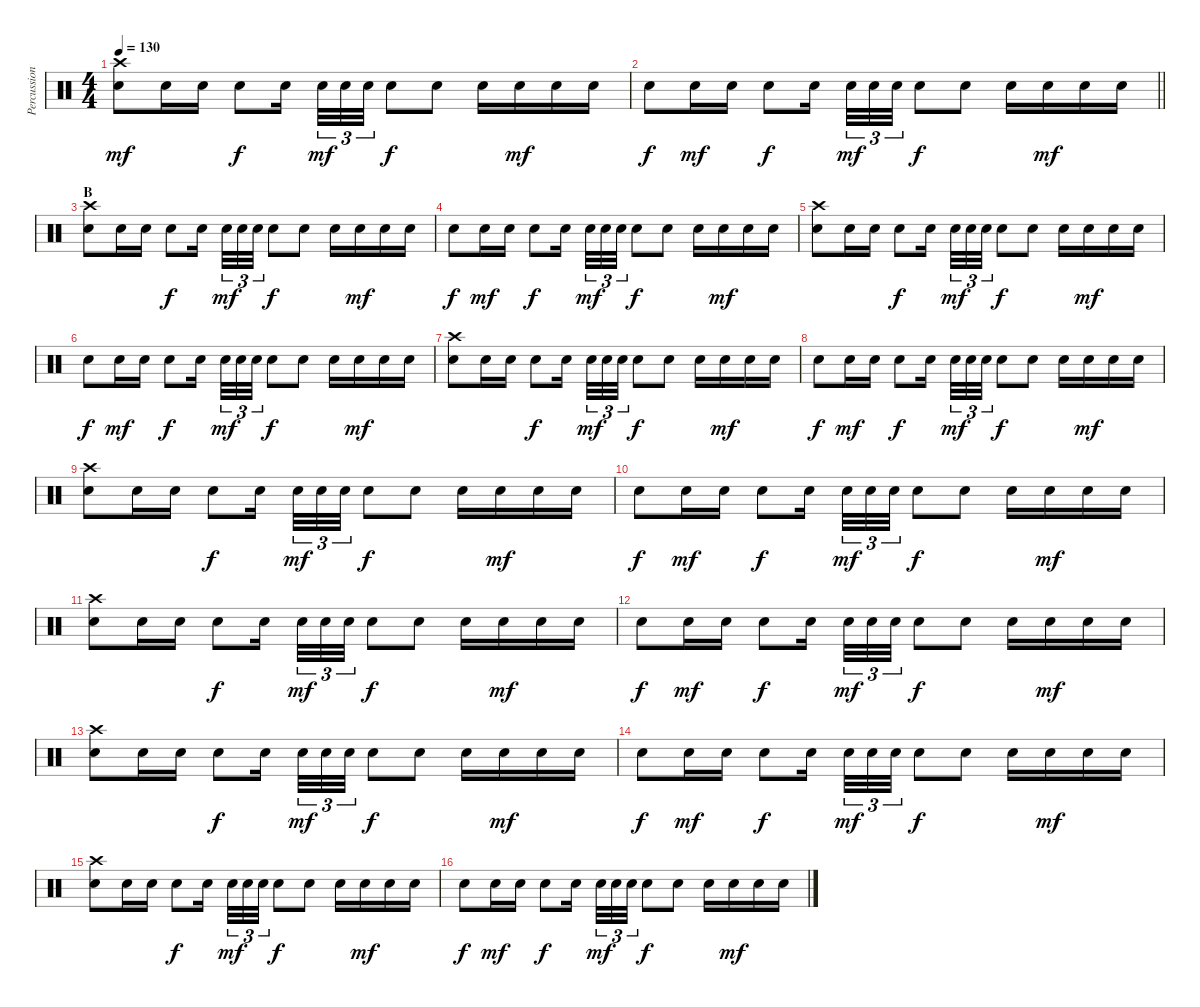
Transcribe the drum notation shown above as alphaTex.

\track ("Percussion" "Percussion") {instrument percussion}
\staff {score}
\articulation defaults
\ts (4 4)
\tempo 130
\clef neutral
\ks c
("Crash high (hit)" "Electric Snare (hit)").8{dy mf} "Electric Snare (hit)".16 "Electric Snare (hit)".16 "Electric Snare (hit)".8{dy f} "Electric Snare (hit)".16{beam splitsecondary} "Electric Snare (hit)".32{tu (3 2) dy mf} "Electric Snare (hit)".32{tu (3 2)} "Electric Snare (hit)".32{tu (3 2)} "Electric Snare (hit)".8{dy f} "Electric Snare (hit)".8 "Electric Snare (hit)".16 "Electric Snare (hit)".16{dy mf} "Electric Snare (hit)".16 "Electric Snare (hit)".16 |
\barLineRight lightlight "Electric Snare (hit)".8{dy f} "Electric Snare (hit)".16{dy mf} "Electric Snare (hit)".16 "Electric Snare (hit)".8{dy f} "Electric Snare (hit)".16{beam splitsecondary} "Electric Snare (hit)".32{tu (3 2) dy mf} "Electric Snare (hit)".32{tu (3 2)} "Electric Snare (hit)".32{tu (3 2)} "Electric Snare (hit)".8{dy f} "Electric Snare (hit)".8 "Electric Snare (hit)".16 "Electric Snare (hit)".16{dy mf} "Electric Snare (hit)".16 "Electric Snare (hit)".16
|
\section ("" "B")
("Crash high (hit)" "Electric Snare (hit)").8 "Electric Snare (hit)".16 "Electric Snare (hit)".16 "Electric Snare (hit)".8{dy f} "Electric Snare (hit)".16{beam splitsecondary} "Electric Snare (hit)".32{tu (3 2) dy mf} "Electric Snare (hit)".32{tu (3 2)} "Electric Snare (hit)".32{tu (3 2)} "Electric Snare (hit)".8{dy f} "Electric Snare (hit)".8 "Electric Snare (hit)".16 "Electric Snare (hit)".16{dy mf} "Electric Snare (hit)".16 "Electric Snare (hit)".16 |
"Electric Snare (hit)".8{dy f} "Electric Snare (hit)".16{dy mf} "Electric Snare (hit)".16 "Electric Snare (hit)".8{dy f} "Electric Snare (hit)".16{beam splitsecondary} "Electric Snare (hit)".32{tu (3 2) dy mf} "Electric Snare (hit)".32{tu (3 2)} "Electric Snare (hit)".32{tu (3 2)} "Electric Snare (hit)".8{dy f} "Electric Snare (hit)".8 "Electric Snare (hit)".16 "Electric Snare (hit)".16{dy mf} "Electric Snare (hit)".16 "Electric Snare (hit)".16 |
("Crash high (hit)" "Electric Snare (hit)").8 "Electric Snare (hit)".16 "Electric Snare (hit)".16 "Electric Snare (hit)".8{dy f} "Electric Snare (hit)".16{beam splitsecondary} "Electric Snare (hit)".32{tu (3 2) dy mf} "Electric Snare (hit)".32{tu (3 2)} "Electric Snare (hit)".32{tu (3 2)} "Electric Snare (hit)".8{dy f} "Electric Snare (hit)".8 "Electric Snare (hit)".16 "Electric Snare (hit)".16{dy mf} "Electric Snare (hit)".16 "Electric Snare (hit)".16 |
"Electric Snare (hit)".8{dy f} "Electric Snare (hit)".16{dy mf} "Electric Snare (hit)".16 "Electric Snare (hit)".8{dy f} "Electric Snare (hit)".16{beam splitsecondary} "Electric Snare (hit)".32{tu (3 2) dy mf} "Electric Snare (hit)".32{tu (3 2)} "Electric Snare (hit)".32{tu (3 2)} "Electric Snare (hit)".8{dy f} "Electric Snare (hit)".8 "Electric Snare (hit)".16 "Electric Snare (hit)".16{dy mf} "Electric Snare (hit)".16 "Electric Snare (hit)".16 |
("Crash high (hit)" "Electric Snare (hit)").8 "Electric Snare (hit)".16 "Electric Snare (hit)".16 "Electric Snare (hit)".8{dy f} "Electric Snare (hit)".16{beam splitsecondary} "Electric Snare (hit)".32{tu (3 2) dy mf} "Electric Snare (hit)".32{tu (3 2)} "Electric Snare (hit)".32{tu (3 2)} "Electric Snare (hit)".8{dy f} "Electric Snare (hit)".8 "Electric Snare (hit)".16 "Electric Snare (hit)".16{dy mf} "Electric Snare (hit)".16 "Electric Snare (hit)".16 |
"Electric Snare (hit)".8{dy f} "Electric Snare (hit)".16{dy mf} "Electric Snare (hit)".16 "Electric Snare (hit)".8{dy f} "Electric Snare (hit)".16{beam splitsecondary} "Electric Snare (hit)".32{tu (3 2) dy mf} "Electric Snare (hit)".32{tu (3 2)} "Electric Snare (hit)".32{tu (3 2)} "Electric Snare (hit)".8{dy f} "Electric Snare (hit)".8 "Electric Snare (hit)".16 "Electric Snare (hit)".16{dy mf} "Electric Snare (hit)".16 "Electric Snare (hit)".16 |
("Crash high (hit)" "Electric Snare (hit)").8 "Electric Snare (hit)".16 "Electric Snare (hit)".16 "Electric Snare (hit)".8{dy f} "Electric Snare (hit)".16{beam splitsecondary} "Electric Snare (hit)".32{tu (3 2) dy mf} "Electric Snare (hit)".32{tu (3 2)} "Electric Snare (hit)".32{tu (3 2)} "Electric Snare (hit)".8{dy f} "Electric Snare (hit)".8 "Electric Snare (hit)".16 "Electric Snare (hit)".16{dy mf} "Electric Snare (hit)".16 "Electric Snare (hit)".16 |
"Electric Snare (hit)".8{dy f} "Electric Snare (hit)".16{dy mf} "Electric Snare (hit)".16 "Electric Snare (hit)".8{dy f} "Electric Snare (hit)".16{beam splitsecondary} "Electric Snare (hit)".32{tu (3 2) dy mf} "Electric Snare (hit)".32{tu (3 2)} "Electric Snare (hit)".32{tu (3 2)} "Electric Snare (hit)".8{dy f} "Electric Snare (hit)".8 "Electric Snare (hit)".16 "Electric Snare (hit)".16{dy mf} "Electric Snare (hit)".16 "Electric Snare (hit)".16 |
("Crash high (hit)" "Electric Snare (hit)").8 "Electric Snare (hit)".16 "Electric Snare (hit)".16 "Electric Snare (hit)".8{dy f} "Electric Snare (hit)".16{beam splitsecondary} "Electric Snare (hit)".32{tu (3 2) dy mf} "Electric Snare (hit)".32{tu (3 2)} "Electric Snare (hit)".32{tu (3 2)} "Electric Snare (hit)".8{dy f} "Electric Snare (hit)".8 "Electric Snare (hit)".16 "Electric Snare (hit)".16{dy mf} "Electric Snare (hit)".16 "Electric Snare (hit)".16 |
"Electric Snare (hit)".8{dy f} "Electric Snare (hit)".16{dy mf} "Electric Snare (hit)".16 "Electric Snare (hit)".8{dy f} "Electric Snare (hit)".16{beam splitsecondary} "Electric Snare (hit)".32{tu (3 2) dy mf} "Electric Snare (hit)".32{tu (3 2)} "Electric Snare (hit)".32{tu (3 2)} "Electric Snare (hit)".8{dy f} "Electric Snare (hit)".8 "Electric Snare (hit)".16 "Electric Snare (hit)".16{dy mf} "Electric Snare (hit)".16 "Electric Snare (hit)".16 |
("Crash high (hit)" "Electric Snare (hit)").8 "Electric Snare (hit)".16 "Electric Snare (hit)".16 "Electric Snare (hit)".8{dy f} "Electric Snare (hit)".16{beam splitsecondary} "Electric Snare (hit)".32{tu (3 2) dy mf} "Electric Snare (hit)".32{tu (3 2)} "Electric Snare (hit)".32{tu (3 2)} "Electric Snare (hit)".8{dy f} "Electric Snare (hit)".8 "Electric Snare (hit)".16 "Electric Snare (hit)".16{dy mf} "Electric Snare (hit)".16 "Electric Snare (hit)".16 |
"Electric Snare (hit)".8{dy f} "Electric Snare (hit)".16{dy mf} "Electric Snare (hit)".16 "Electric Snare (hit)".8{dy f} "Electric Snare (hit)".16{beam splitsecondary} "Electric Snare (hit)".32{tu (3 2) dy mf} "Electric Snare (hit)".32{tu (3 2)} "Electric Snare (hit)".32{tu (3 2)} "Electric Snare (hit)".8{dy f} "Electric Snare (hit)".8 "Electric Snare (hit)".16 "Electric Snare (hit)".16{dy mf} "Electric Snare (hit)".16 "Electric Snare (hit)".16 |
("Crash high (hit)" "Electric Snare (hit)").8 "Electric Snare (hit)".16 "Electric Snare (hit)".16 "Electric Snare (hit)".8{dy f} "Electric Snare (hit)".16{beam splitsecondary} "Electric Snare (hit)".32{tu (3 2) dy mf} "Electric Snare (hit)".32{tu (3 2)} "Electric Snare (hit)".32{tu (3 2)} "Electric Snare (hit)".8{dy f} "Electric Snare (hit)".8 "Electric Snare (hit)".16 "Electric Snare (hit)".16{dy mf} "Electric Snare (hit)".16 "Electric Snare (hit)".16 |
"Electric Snare (hit)".8{dy f} "Electric Snare (hit)".16{dy mf} "Electric Snare (hit)".16 "Electric Snare (hit)".8{dy f} "Electric Snare (hit)".16{beam splitsecondary} "Electric Snare (hit)".32{tu (3 2) dy mf} "Electric Snare (hit)".32{tu (3 2)} "Electric Snare (hit)".32{tu (3 2)} "Electric Snare (hit)".8{dy f} "Electric Snare (hit)".8 "Electric Snare (hit)".16 "Electric Snare (hit)".16{dy mf} "Electric Snare (hit)".16 "Electric Snare (hit)".16
